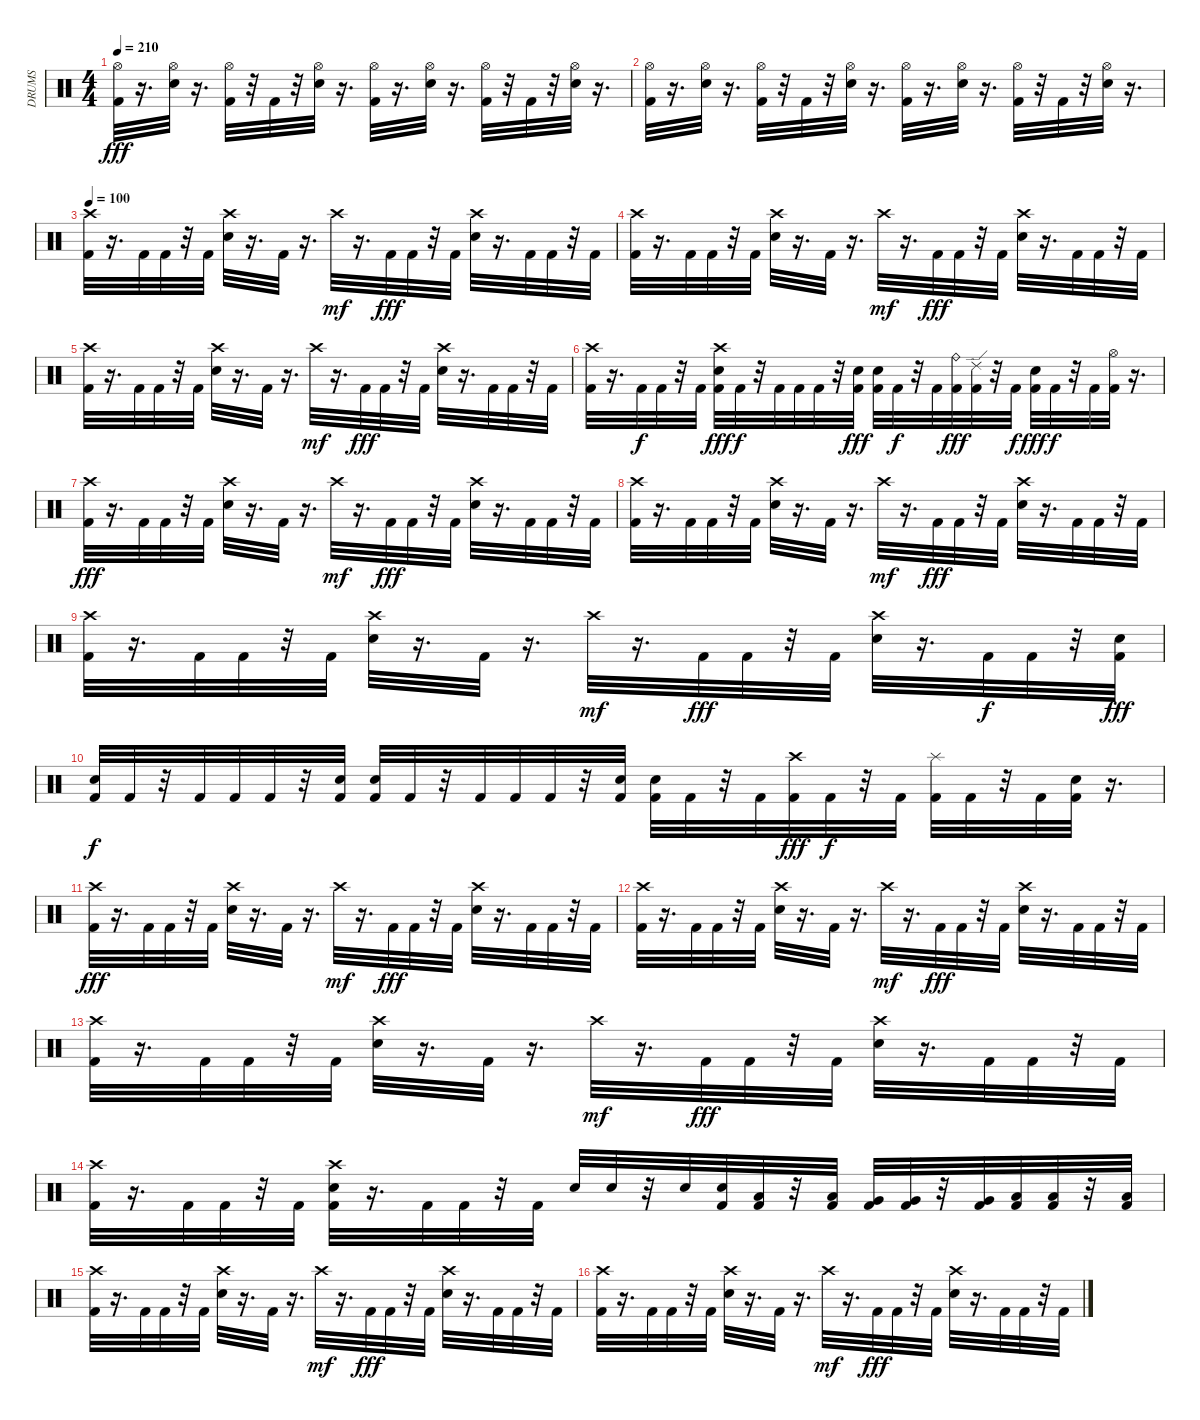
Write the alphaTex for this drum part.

\track ("DRUMS" "DRUMS") {instrument percussion}
\staff {score}
\articulation defaults
\ts (4 4)
\tempo 210
\clef neutral
\ks c
("Hi-Hat (open)" "Kick (hit) 2").32{dy fff} r.16{d} ("Hi-Hat (open)" "Electric Snare (hit)").32 r.16{d} ("Hi-Hat (open)" "Kick (hit) 2").32 r.32 "Kick (hit) 2".32 r.32 ("Hi-Hat (open)" "Electric Snare (hit)").32 r.16{d} ("Hi-Hat (open)" "Kick (hit) 2").32 r.16{d} ("Hi-Hat (open)" "Electric Snare (hit)").32 r.16{d} ("Hi-Hat (open)" "Kick (hit) 2").32 r.32 "Kick (hit) 2".32 r.32 ("Hi-Hat (open)" "Electric Snare (hit)").32 r.16{d} |
("Hi-Hat (open)" "Kick (hit) 2").32 r.16{d} ("Hi-Hat (open)" "Electric Snare (hit)").32 r.16{d} ("Hi-Hat (open)" "Kick (hit) 2").32 r.32 "Kick (hit) 2".32 r.32 ("Hi-Hat (open)" "Electric Snare (hit)").32 r.16{d} ("Hi-Hat (open)" "Kick (hit) 2").32 r.16{d} ("Hi-Hat (open)" "Electric Snare (hit)").32 r.16{d} ("Hi-Hat (open)" "Kick (hit) 2").32 r.32 "Kick (hit) 2".32 r.32 ("Hi-Hat (open)" "Electric Snare (hit)").32 r.16{d} |
\tempo 100
("Crash high (hit)" "Kick (hit) 2").32 r.16{d} "Kick (hit) 2".32 "Kick (hit) 2".32 r.32 "Kick (hit) 2".32 ("Crash high (hit)" "Electric Snare (hit)").32 r.16{d} "Kick (hit) 2".32 r.16{d} "Crash high (hit)".32{dy mf} r.16{d} "Kick (hit) 2".32{dy fff} "Kick (hit) 2".32 r.32 "Kick (hit) 2".32 ("Crash high (hit)" "Electric Snare (hit)").32 r.16{d} "Kick (hit) 2".32 "Kick (hit) 2".32 r.32 "Kick (hit) 2".32 |
("Crash high (hit)" "Kick (hit) 2").32 r.16{d} "Kick (hit) 2".32 "Kick (hit) 2".32 r.32 "Kick (hit) 2".32 ("Crash high (hit)" "Electric Snare (hit)").32 r.16{d} "Kick (hit) 2".32 r.16{d} "Crash high (hit)".32{dy mf} r.16{d} "Kick (hit) 2".32{dy fff} "Kick (hit) 2".32 r.32 "Kick (hit) 2".32 ("Crash high (hit)" "Electric Snare (hit)").32 r.16{d} "Kick (hit) 2".32 "Kick (hit) 2".32 r.32 "Kick (hit) 2".32 |
("Crash high (hit)" "Kick (hit) 2").32 r.16{d} "Kick (hit) 2".32 "Kick (hit) 2".32 r.32 "Kick (hit) 2".32 ("Crash high (hit)" "Electric Snare (hit)").32 r.16{d} "Kick (hit) 2".32 r.16{d} "Crash high (hit)".32{dy mf} r.16{d} "Kick (hit) 2".32{dy fff} "Kick (hit) 2".32 r.32 "Kick (hit) 2".32 ("Crash high (hit)" "Electric Snare (hit)").32 r.16{d} "Kick (hit) 2".32 "Kick (hit) 2".32 r.32 "Kick (hit) 2".32 |
("Crash high (hit)" "Kick (hit) 2").32 r.16{d} "Kick (hit) 2".32{dy f} "Kick (hit) 2".32 r.32 "Kick (hit) 2".32 ("Crash high (hit)" "Electric Snare (hit)" "Kick (hit) 2").32{dy fff} "Kick (hit) 2".32{dy f} r.32 "Kick (hit) 2".32 "Kick (hit) 2".32 "Kick (hit) 2".32 r.32 ("Electric Snare (hit)" "Kick (hit) 2").32{dy fff} ("Electric Snare (hit)" "Kick (hit) 2").32 "Kick (hit) 2".32{dy f} r.32 "Kick (hit) 2".32 ("Ride (bell)" "Kick (hit) 2").32{dy fff} ("Ride (edge) 2" "Kick (hit) 2").32 r.32 "Kick (hit) 2".32{dy f} ("Electric Snare (hit)" "Kick (hit) 2").32{dy fff} "Kick (hit) 2".32{dy f} r.32 "Kick (hit) 2".32 ("Hi-Hat (open)" "Kick (hit) 2").32 r.16{d} |
("Crash high (hit)" "Kick (hit) 2").32{dy fff} r.16{d} "Kick (hit) 2".32 "Kick (hit) 2".32 r.32 "Kick (hit) 2".32 ("Crash high (hit)" "Electric Snare (hit)").32 r.16{d} "Kick (hit) 2".32 r.16{d} "Crash high (hit)".32{dy mf} r.16{d} "Kick (hit) 2".32{dy fff} "Kick (hit) 2".32 r.32 "Kick (hit) 2".32 ("Crash high (hit)" "Electric Snare (hit)").32 r.16{d} "Kick (hit) 2".32 "Kick (hit) 2".32 r.32 "Kick (hit) 2".32 |
("Crash high (hit)" "Kick (hit) 2").32 r.16{d} "Kick (hit) 2".32 "Kick (hit) 2".32 r.32 "Kick (hit) 2".32 ("Crash high (hit)" "Electric Snare (hit)").32 r.16{d} "Kick (hit) 2".32 r.16{d} "Crash high (hit)".32{dy mf} r.16{d} "Kick (hit) 2".32{dy fff} "Kick (hit) 2".32 r.32 "Kick (hit) 2".32 ("Crash high (hit)" "Electric Snare (hit)").32 r.16{d} "Kick (hit) 2".32 "Kick (hit) 2".32 r.32 "Kick (hit) 2".32 |
("Crash high (hit)" "Kick (hit) 2").32 r.16{d} "Kick (hit) 2".32 "Kick (hit) 2".32 r.32 "Kick (hit) 2".32 ("Crash high (hit)" "Electric Snare (hit)").32 r.16{d} "Kick (hit) 2".32 r.16{d} "Crash high (hit)".32{dy mf} r.16{d} "Kick (hit) 2".32{dy fff} "Kick (hit) 2".32 r.32 "Kick (hit) 2".32 ("Crash high (hit)" "Electric Snare (hit)").32 r.16{d} "Kick (hit) 2".32{dy f} "Kick (hit) 2".32 r.32 ("Electric Snare (hit)" "Kick (hit) 2").32{dy fff} |
("Electric Snare (hit)" "Kick (hit) 2").32{dy f} "Kick (hit) 2".32 r.32 "Kick (hit) 2".32 "Kick (hit) 2".32 "Kick (hit) 2".32 r.32 ("Electric Snare (hit)" "Kick (hit) 2").32 ("Electric Snare (hit)" "Kick (hit) 2").32 "Kick (hit) 2".32 r.32 "Kick (hit) 2".32 "Kick (hit) 2".32 "Kick (hit) 2".32 r.32 ("Electric Snare (hit)" "Kick (hit) 2").32 ("Electric Snare (hit)" "Kick (hit) 2").32 "Kick (hit) 2".32 r.32 "Kick (hit) 2".32 ("Crash high (hit)" "Kick (hit) 2").32{dy fff} "Kick (hit) 2".32{dy f} r.32 "Kick (hit) 2".32 ("Splash (hit)" "Kick (hit) 2").32 "Kick (hit) 2".32 r.32 "Kick (hit) 2".32 ("Electric Snare (hit)" "Kick (hit) 2").32 r.16{d} |
("Crash high (hit)" "Kick (hit) 2").32{dy fff} r.16{d} "Kick (hit) 2".32 "Kick (hit) 2".32 r.32 "Kick (hit) 2".32 ("Crash high (hit)" "Electric Snare (hit)").32 r.16{d} "Kick (hit) 2".32 r.16{d} "Crash high (hit)".32{dy mf} r.16{d} "Kick (hit) 2".32{dy fff} "Kick (hit) 2".32 r.32 "Kick (hit) 2".32 ("Crash high (hit)" "Electric Snare (hit)").32 r.16{d} "Kick (hit) 2".32 "Kick (hit) 2".32 r.32 "Kick (hit) 2".32 |
("Crash high (hit)" "Kick (hit) 2").32 r.16{d} "Kick (hit) 2".32 "Kick (hit) 2".32 r.32 "Kick (hit) 2".32 ("Crash high (hit)" "Electric Snare (hit)").32 r.16{d} "Kick (hit) 2".32 r.16{d} "Crash high (hit)".32{dy mf} r.16{d} "Kick (hit) 2".32{dy fff} "Kick (hit) 2".32 r.32 "Kick (hit) 2".32 ("Crash high (hit)" "Electric Snare (hit)").32 r.16{d} "Kick (hit) 2".32 "Kick (hit) 2".32 r.32 "Kick (hit) 2".32 |
("Crash high (hit)" "Kick (hit) 2").32 r.16{d} "Kick (hit) 2".32 "Kick (hit) 2".32 r.32 "Kick (hit) 2".32 ("Crash high (hit)" "Electric Snare (hit)").32 r.16{d} "Kick (hit) 2".32 r.16{d} "Crash high (hit)".32{dy mf} r.16{d} "Kick (hit) 2".32{dy fff} "Kick (hit) 2".32 r.32 "Kick (hit) 2".32 ("Crash high (hit)" "Electric Snare (hit)").32 r.16{d} "Kick (hit) 2".32 "Kick (hit) 2".32 r.32 "Kick (hit) 2".32 |
("Crash high (hit)" "Kick (hit) 2").32 r.16{d} "Kick (hit) 2".32 "Kick (hit) 2".32 r.32 "Kick (hit) 2".32 ("Crash high (hit)" "Electric Snare (hit)" "Kick (hit) 2").32 r.16{d} "Kick (hit) 2".32 "Kick (hit) 2".32 r.32 "Kick (hit) 2".32 "Electric Snare (hit)".32 "Electric Snare (hit)".32 r.32 "Electric Snare (hit)".32 ("Electric Snare (hit)" "Kick (hit) 2").32 ("Low Tom (hit)" "Kick (hit) 2").32 r.32 ("Low Tom (hit)" "Kick (hit) 2").32 ("Very Low Tom (hit)" "Kick (hit) 2").32 ("Very Low Tom (hit)" "Kick (hit) 2").32 r.32 ("Very Low Tom (hit)" "Kick (hit) 2").32 ("Low Floor Tom (hit)" "Kick (hit) 2").32 ("Low Floor Tom (hit)" "Kick (hit) 2").32 r.32 ("Low Floor Tom (hit)" "Kick (hit) 2").32 |
("Crash high (hit)" "Kick (hit) 2").32 r.16{d} "Kick (hit) 2".32 "Kick (hit) 2".32 r.32 "Kick (hit) 2".32 ("Crash high (hit)" "Electric Snare (hit)").32 r.16{d} "Kick (hit) 2".32 r.16{d} "Crash high (hit)".32{dy mf} r.16{d} "Kick (hit) 2".32{dy fff} "Kick (hit) 2".32 r.32 "Kick (hit) 2".32 ("Crash high (hit)" "Electric Snare (hit)").32 r.16{d} "Kick (hit) 2".32 "Kick (hit) 2".32 r.32 "Kick (hit) 2".32 |
("Crash high (hit)" "Kick (hit) 2").32 r.16{d} "Kick (hit) 2".32 "Kick (hit) 2".32 r.32 "Kick (hit) 2".32 ("Crash high (hit)" "Electric Snare (hit)").32 r.16{d} "Kick (hit) 2".32 r.16{d} "Crash high (hit)".32{dy mf} r.16{d} "Kick (hit) 2".32{dy fff} "Kick (hit) 2".32 r.32 "Kick (hit) 2".32 ("Crash high (hit)" "Electric Snare (hit)").32 r.16{d} "Kick (hit) 2".32 "Kick (hit) 2".32 r.32 "Kick (hit) 2".32
